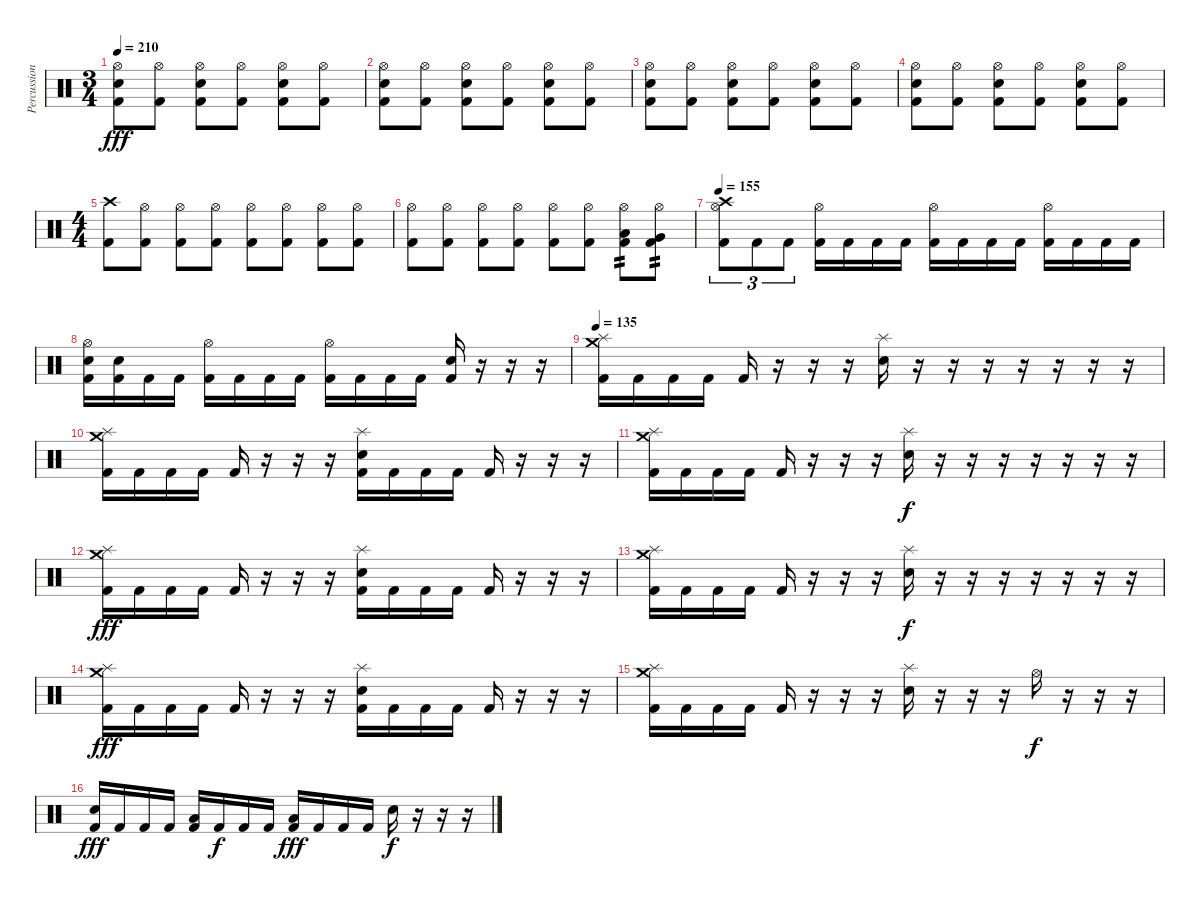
\track ("Percussion" "Percussion") {instrument percussion}
\staff {score}
\articulation defaults
\ts (3 4)
\tempo 210
\clef neutral
\ks c
("Hi-Hat (open)" "Electric Snare (hit)" "Kick (hit) 2").8{dy fff} ("Hi-Hat (open)" "Kick (hit) 2").8 ("Hi-Hat (open)" "Electric Snare (hit)" "Kick (hit) 2").8 ("Hi-Hat (open)" "Kick (hit) 2").8 ("Hi-Hat (open)" "Electric Snare (hit)" "Kick (hit) 2").8 ("Hi-Hat (open)" "Kick (hit) 2").8 |
("Hi-Hat (open)" "Electric Snare (hit)" "Kick (hit) 2").8 ("Hi-Hat (open)" "Kick (hit) 2").8 ("Hi-Hat (open)" "Electric Snare (hit)" "Kick (hit) 2").8 ("Hi-Hat (open)" "Kick (hit) 2").8 ("Hi-Hat (open)" "Electric Snare (hit)" "Kick (hit) 2").8 ("Hi-Hat (open)" "Kick (hit) 2").8 |
("Hi-Hat (open)" "Electric Snare (hit)" "Kick (hit) 2").8 ("Hi-Hat (open)" "Kick (hit) 2").8 ("Hi-Hat (open)" "Electric Snare (hit)" "Kick (hit) 2").8 ("Hi-Hat (open)" "Kick (hit) 2").8 ("Hi-Hat (open)" "Electric Snare (hit)" "Kick (hit) 2").8 ("Hi-Hat (open)" "Kick (hit) 2").8 |
("Hi-Hat (open)" "Electric Snare (hit)" "Kick (hit) 2").8 ("Hi-Hat (open)" "Kick (hit) 2").8 ("Hi-Hat (open)" "Electric Snare (hit)" "Kick (hit) 2").8 ("Hi-Hat (open)" "Kick (hit) 2").8 ("Hi-Hat (open)" "Electric Snare (hit)" "Kick (hit) 2").8 ("Hi-Hat (open)" "Kick (hit) 2").8 |
\ts (4 4)
("Crash high (hit)" "Kick (hit) 2").8 ("Hi-Hat (open)" "Kick (hit) 2").8 ("Hi-Hat (open)" "Kick (hit) 2").8 ("Hi-Hat (open)" "Kick (hit) 2").8 ("Hi-Hat (open)" "Kick (hit) 2").8 ("Hi-Hat (open)" "Kick (hit) 2").8 ("Hi-Hat (open)" "Kick (hit) 2").8 ("Hi-Hat (open)" "Kick (hit) 2").8 |
("Hi-Hat (open)" "Kick (hit) 2").8 ("Hi-Hat (open)" "Kick (hit) 2").8 ("Hi-Hat (open)" "Kick (hit) 2").8 ("Hi-Hat (open)" "Kick (hit) 2").8 ("Hi-Hat (open)" "Kick (hit) 2").8 ("Hi-Hat (open)" "Kick (hit) 2").8 ("Hi-Hat (open)" "Low Tom (hit)" "Kick (hit) 2").8{tp 2} ("Hi-Hat (open)" "Very Low Tom (hit)" "Kick (hit) 2").8{tp 2} |
\tempo 155
("Hi-Hat (open)" "Crash high (hit)" "Kick (hit) 2").8{tu (3 2)} "Kick (hit) 2".8{tu (3 2)} "Kick (hit) 2".8{tu (3 2)} ("Hi-Hat (open)" "Kick (hit) 2").16 "Kick (hit) 2".16 "Kick (hit) 2".16 "Kick (hit) 2".16 ("Hi-Hat (open)" "Kick (hit) 2").16 "Kick (hit) 2".16 "Kick (hit) 2".16 "Kick (hit) 2".16 ("Hi-Hat (open)" "Kick (hit) 2").16 "Kick (hit) 2".16 "Kick (hit) 2".16 "Kick (hit) 2".16 |
("Hi-Hat (open)" "Electric Snare (hit)" "Kick (hit) 2").16 ("Electric Snare (hit)" "Kick (hit) 2").16 "Kick (hit) 2".16 "Kick (hit) 2".16 ("Hi-Hat (open)" "Kick (hit) 2").16 "Kick (hit) 2".16 "Kick (hit) 2".16 "Kick (hit) 2".16 ("Hi-Hat (open)" "Kick (hit) 2").16 "Kick (hit) 2".16 "Kick (hit) 2".16 "Kick (hit) 2".16 ("Electric Snare (hit)" "Kick (hit) 2").16 r.16 r.16 r.16 |
\tempo 135
("Crash medium (hit)" "Splash (hit)" "Kick (hit) 2").16 "Kick (hit) 2".16 "Kick (hit) 2".16 "Kick (hit) 2".16 "Kick (hit) 2".16 r.16 r.16 r.16 ("Splash (hit)" "Electric Snare (hit)").16 r.16 r.16 r.16 r.16 r.16 r.16 r.16 |
("Crash medium (hit)" "Splash (hit)" "Kick (hit) 2").16 "Kick (hit) 2".16 "Kick (hit) 2".16 "Kick (hit) 2".16 "Kick (hit) 2".16 r.16 r.16 r.16 ("Splash (hit)" "Electric Snare (hit)" "Kick (hit) 2").16 "Kick (hit) 2".16 "Kick (hit) 2".16 "Kick (hit) 2".16 "Kick (hit) 2".16 r.16 r.16 r.16 |
("Crash medium (hit)" "Splash (hit)" "Kick (hit) 2").16 "Kick (hit) 2".16 "Kick (hit) 2".16 "Kick (hit) 2".16 "Kick (hit) 2".16 r.16 r.16 r.16 ("Splash (hit)" "Electric Snare (hit)").16{dy f} r.16 r.16 r.16 r.16 r.16 r.16 r.16 |
("Crash medium (hit)" "Splash (hit)" "Kick (hit) 2").16{dy fff} "Kick (hit) 2".16 "Kick (hit) 2".16 "Kick (hit) 2".16 "Kick (hit) 2".16 r.16 r.16 r.16 ("Splash (hit)" "Electric Snare (hit)" "Kick (hit) 2").16 "Kick (hit) 2".16 "Kick (hit) 2".16 "Kick (hit) 2".16 "Kick (hit) 2".16 r.16 r.16 r.16 |
("Crash medium (hit)" "Splash (hit)" "Kick (hit) 2").16 "Kick (hit) 2".16 "Kick (hit) 2".16 "Kick (hit) 2".16 "Kick (hit) 2".16 r.16 r.16 r.16 ("Splash (hit)" "Electric Snare (hit)").16{dy f} r.16 r.16 r.16 r.16 r.16 r.16 r.16 |
("Crash medium (hit)" "Splash (hit)" "Kick (hit) 2").16{dy fff} "Kick (hit) 2".16 "Kick (hit) 2".16 "Kick (hit) 2".16 "Kick (hit) 2".16 r.16 r.16 r.16 ("Splash (hit)" "Electric Snare (hit)" "Kick (hit) 2").16 "Kick (hit) 2".16 "Kick (hit) 2".16 "Kick (hit) 2".16 "Kick (hit) 2".16 r.16 r.16 r.16 |
("Crash medium (hit)" "Splash (hit)" "Kick (hit) 2").16 "Kick (hit) 2".16 "Kick (hit) 2".16 "Kick (hit) 2".16 "Kick (hit) 2".16 r.16 r.16 r.16 ("Splash (hit)" "Electric Snare (hit)").16 r.16 r.16 r.16 "Hi-Hat (open)".16{dy f} r.16 r.16 r.16 |
("Electric Snare (hit)" "Kick (hit) 2").16{dy fff} "Kick (hit) 2".16 "Kick (hit) 2".16 "Kick (hit) 2".16 ("Low Floor Tom (hit)" "Kick (hit) 2").16 "Kick (hit) 2".16{dy f} "Kick (hit) 2".16 "Kick (hit) 2".16 ("Low Floor Tom (hit)" "Kick (hit) 2").16{dy fff} "Kick (hit) 2".16 "Kick (hit) 2".16 "Kick (hit) 2".16 "Electric Snare (hit)".16{dy f} r.16 r.16 r.16
